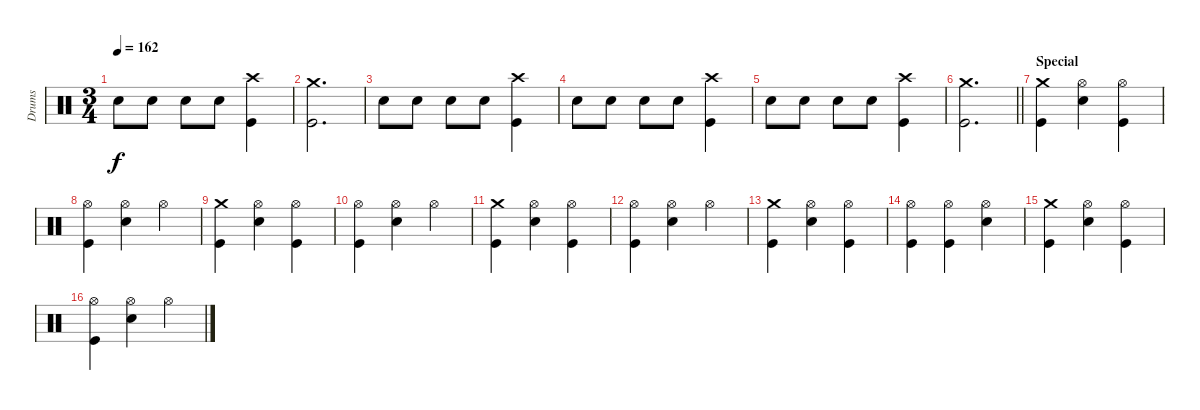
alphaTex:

\track ("Drums" "Drums") {instrument percussion}
\staff {score}
\articulation defaults
\ts (3 4)
\tempo 162
\clef neutral
\ks c "Snare (hit) 2".8{dy f} "Snare (hit) 2".8 "Snare (hit) 2".8 "Snare (hit) 2".8
("Crash high (hit)" "Kick (hit)").4 |
("Crash medium (hit)" "Kick (hit)").2{d} |
"Snare (hit) 2".8 "Snare (hit) 2".8 "Snare (hit) 2".8 "Snare (hit) 2".8 ("Crash high (hit)" "Kick (hit)").4 |
"Snare (hit) 2".8 "Snare (hit) 2".8 "Snare (hit) 2".8 "Snare (hit) 2".8 ("Crash high (hit)" "Kick (hit)").4 |
"Snare (hit) 2".8 "Snare (hit) 2".8 "Snare (hit) 2".8 "Snare (hit) 2".8 ("Crash high (hit)" "Kick (hit)").4 |
\barLineRight lightlight
("Crash medium (hit)" "Kick (hit)").2{d} |
\section ("" "Special")
("Crash medium (hit)" "Kick (hit)").4 ("Hi-Hat (open)" "Snare (hit) 2").4 ("Hi-Hat (open)" "Kick (hit)").4 |
("Hi-Hat (open)" "Kick (hit)").4 ("Hi-Hat (open)" "Snare (hit) 2").4 "Hi-Hat (open)".4 |
("Crash medium (hit)" "Kick (hit)").4 ("Hi-Hat (open)" "Snare (hit) 2").4 ("Hi-Hat (open)" "Kick (hit)").4 |
("Hi-Hat (open)" "Kick (hit)").4 ("Hi-Hat (open)" "Snare (hit) 2").4 "Hi-Hat (open)".4 |
("Crash medium (hit)" "Kick (hit)").4 ("Hi-Hat (open)" "Snare (hit) 2").4 ("Hi-Hat (open)" "Kick (hit)").4 |
("Hi-Hat (open)" "Kick (hit)").4 ("Hi-Hat (open)" "Snare (hit) 2").4 "Hi-Hat (open)".4 |
("Crash medium (hit)" "Kick (hit)").4 ("Hi-Hat (open)" "Snare (hit) 2").4 ("Hi-Hat (open)" "Kick (hit)").4 |
("Hi-Hat (open)" "Kick (hit)").4 ("Hi-Hat (open)" "Kick (hit)").4 ("Hi-Hat (open)" "Snare (hit) 2").4 |
("Crash medium (hit)" "Kick (hit)").4 ("Hi-Hat (open)" "Snare (hit) 2").4 ("Hi-Hat (open)" "Kick (hit)").4 |
("Hi-Hat (open)" "Kick (hit)").4 ("Hi-Hat (open)" "Snare (hit) 2").4 "Hi-Hat (open)".4
